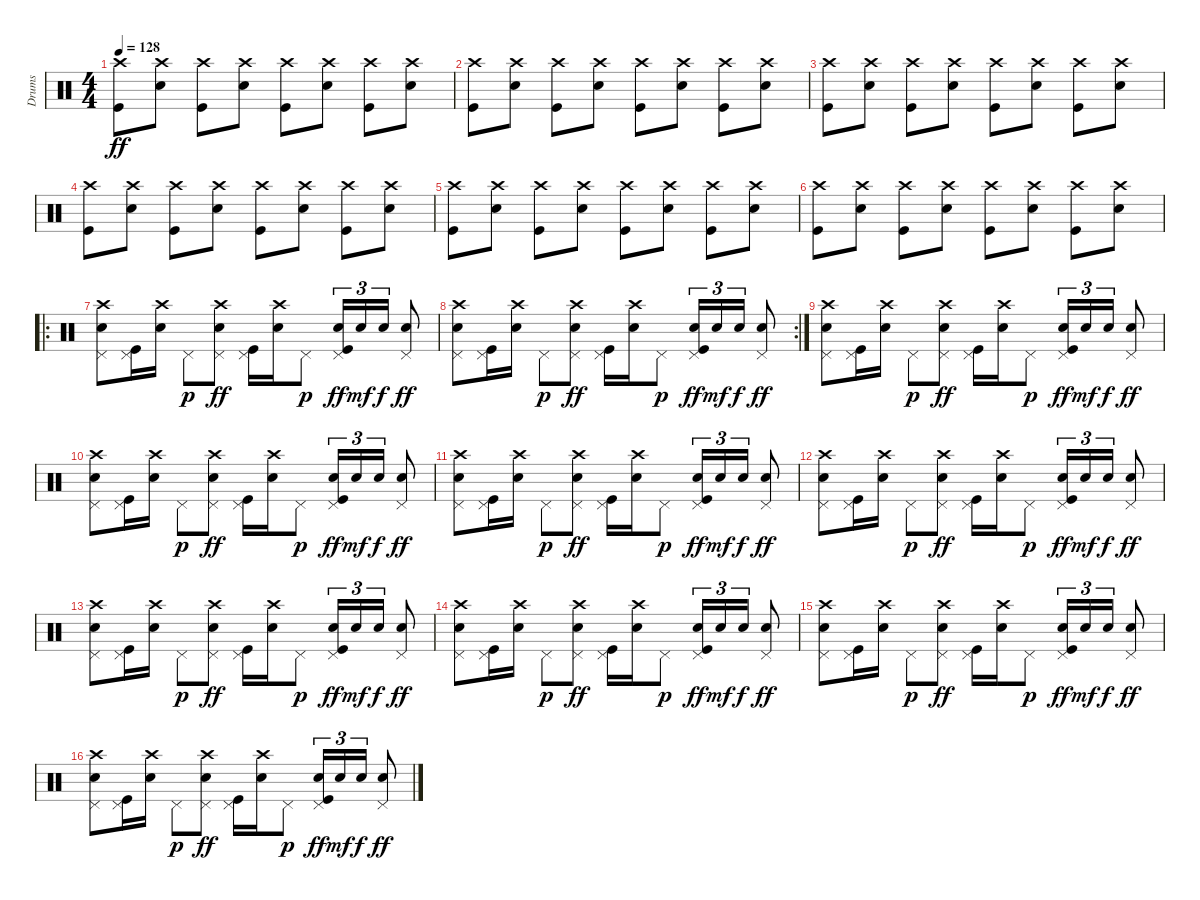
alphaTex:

\track ("Drums" "Drums") {instrument percussion}
\staff {score}
\articulation defaults
\ts (4 4)
\tempo 128
\clef neutral
\ks c
("Crash high (hit)" "Kick (hit)").8{dy ff} ("Crash high (hit)" "Snare (hit) 2").8 ("Crash high (hit)" "Kick (hit)").8 ("Crash high (hit)" "Snare (hit) 2").8 ("Crash high (hit)" "Kick (hit)").8 ("Crash high (hit)" "Snare (hit) 2").8 ("Crash high (hit)" "Kick (hit)").8 ("Crash high (hit)" "Snare (hit) 2").8 |
("Crash high (hit)" "Kick (hit)").8 ("Crash high (hit)" "Snare (hit) 2").8 ("Crash high (hit)" "Kick (hit)").8 ("Crash high (hit)" "Snare (hit) 2").8 ("Crash high (hit)" "Kick (hit)").8 ("Crash high (hit)" "Snare (hit) 2").8 ("Crash high (hit)" "Kick (hit)").8 ("Crash high (hit)" "Snare (hit) 2").8 |
("Crash high (hit)" "Kick (hit)").8 ("Crash high (hit)" "Snare (hit) 2").8 ("Crash high (hit)" "Kick (hit)").8 ("Crash high (hit)" "Snare (hit) 2").8 ("Crash high (hit)" "Kick (hit)").8 ("Crash high (hit)" "Snare (hit) 2").8 ("Crash high (hit)" "Kick (hit)").8 ("Crash high (hit)" "Snare (hit) 2").8 |
("Crash high (hit)" "Kick (hit)").8 ("Crash high (hit)" "Snare (hit) 2").8 ("Crash high (hit)" "Kick (hit)").8 ("Crash high (hit)" "Snare (hit) 2").8 ("Crash high (hit)" "Kick (hit)").8 ("Crash high (hit)" "Snare (hit) 2").8 ("Crash high (hit)" "Kick (hit)").8 ("Crash high (hit)" "Snare (hit) 2").8 |
("Crash high (hit)" "Kick (hit)").8 ("Crash high (hit)" "Snare (hit) 2").8 ("Crash high (hit)" "Kick (hit)").8 ("Crash high (hit)" "Snare (hit) 2").8 ("Crash high (hit)" "Kick (hit)").8 ("Crash high (hit)" "Snare (hit) 2").8 ("Crash high (hit)" "Kick (hit)").8 ("Crash high (hit)" "Snare (hit) 2").8 |
("Crash high (hit)" "Kick (hit)").8 ("Crash high (hit)" "Snare (hit) 2").8 ("Crash high (hit)" "Kick (hit)").8 ("Crash high (hit)" "Snare (hit) 2").8 ("Crash high (hit)" "Kick (hit)").8 ("Crash high (hit)" "Snare (hit) 2").8 ("Crash high (hit)" "Kick (hit)").8 ("Crash high (hit)" "Snare (hit) 2").8 |
\ro
("Crash high (hit)" "Pedal Hi-Hat (hit)" "Snare (hit) 2").8 ("Pedal Hi-Hat (hit)" "Kick (hit)").16 ("Crash high (hit)" "Snare (hit) 2").16 "Pedal Hi-Hat (hit)".8{dy p} ("Crash high (hit)" "Pedal Hi-Hat (hit)" "Snare (hit) 2").8{dy ff} ("Pedal Hi-Hat (hit)" "Kick (hit)").16 ("Crash high (hit)" "Snare (hit) 2").16 "Pedal Hi-Hat (hit)".8{dy p} ("Pedal Hi-Hat (hit)" "Snare (hit) 2" "Kick (hit)").16{tu (3 2) dy ff} "Snare (hit) 2".16{tu (3 2) dy mf} "Snare (hit) 2".16{tu (3 2) dy f} ("Pedal Hi-Hat (hit)" "Snare (hit) 2").8{dy ff} |
\rc 2
("Crash high (hit)" "Pedal Hi-Hat (hit)" "Snare (hit) 2").8 ("Pedal Hi-Hat (hit)" "Kick (hit)").16 ("Crash high (hit)" "Snare (hit) 2").16 "Pedal Hi-Hat (hit)".8{dy p} ("Crash high (hit)" "Pedal Hi-Hat (hit)" "Snare (hit) 2").8{dy ff} ("Pedal Hi-Hat (hit)" "Kick (hit)").16 ("Crash high (hit)" "Snare (hit) 2").16 "Pedal Hi-Hat (hit)".8{dy p} ("Pedal Hi-Hat (hit)" "Snare (hit) 2" "Kick (hit)").16{tu (3 2) dy ff} "Snare (hit) 2".16{tu (3 2) dy mf} "Snare (hit) 2".16{tu (3 2) dy f} ("Pedal Hi-Hat (hit)" "Snare (hit) 2").8{dy ff} |
("Crash high (hit)" "Pedal Hi-Hat (hit)" "Snare (hit) 2").8 ("Pedal Hi-Hat (hit)" "Kick (hit)").16 ("Crash high (hit)" "Snare (hit) 2").16 "Pedal Hi-Hat (hit)".8{dy p} ("Crash high (hit)" "Pedal Hi-Hat (hit)" "Snare (hit) 2").8{dy ff} ("Pedal Hi-Hat (hit)" "Kick (hit)").16 ("Crash high (hit)" "Snare (hit) 2").16 "Pedal Hi-Hat (hit)".8{dy p} ("Pedal Hi-Hat (hit)" "Snare (hit) 2" "Kick (hit)").16{tu (3 2) dy ff} "Snare (hit) 2".16{tu (3 2) dy mf} "Snare (hit) 2".16{tu (3 2) dy f} ("Pedal Hi-Hat (hit)" "Snare (hit) 2").8{dy ff} |
("Crash high (hit)" "Pedal Hi-Hat (hit)" "Snare (hit) 2").8 ("Pedal Hi-Hat (hit)" "Kick (hit)").16 ("Crash high (hit)" "Snare (hit) 2").16 "Pedal Hi-Hat (hit)".8{dy p} ("Crash high (hit)" "Pedal Hi-Hat (hit)" "Snare (hit) 2").8{dy ff} ("Pedal Hi-Hat (hit)" "Kick (hit)").16 ("Crash high (hit)" "Snare (hit) 2").16 "Pedal Hi-Hat (hit)".8{dy p} ("Pedal Hi-Hat (hit)" "Snare (hit) 2" "Kick (hit)").16{tu (3 2) dy ff} "Snare (hit) 2".16{tu (3 2) dy mf} "Snare (hit) 2".16{tu (3 2) dy f} ("Pedal Hi-Hat (hit)" "Snare (hit) 2").8{dy ff} |
("Crash high (hit)" "Pedal Hi-Hat (hit)" "Snare (hit) 2").8 ("Pedal Hi-Hat (hit)" "Kick (hit)").16 ("Crash high (hit)" "Snare (hit) 2").16 "Pedal Hi-Hat (hit)".8{dy p} ("Crash high (hit)" "Pedal Hi-Hat (hit)" "Snare (hit) 2").8{dy ff} ("Pedal Hi-Hat (hit)" "Kick (hit)").16 ("Crash high (hit)" "Snare (hit) 2").16 "Pedal Hi-Hat (hit)".8{dy p} ("Pedal Hi-Hat (hit)" "Snare (hit) 2" "Kick (hit)").16{tu (3 2) dy ff} "Snare (hit) 2".16{tu (3 2) dy mf} "Snare (hit) 2".16{tu (3 2) dy f} ("Pedal Hi-Hat (hit)" "Snare (hit) 2").8{dy ff} |
("Crash high (hit)" "Pedal Hi-Hat (hit)" "Snare (hit) 2").8 ("Pedal Hi-Hat (hit)" "Kick (hit)").16 ("Crash high (hit)" "Snare (hit) 2").16 "Pedal Hi-Hat (hit)".8{dy p} ("Crash high (hit)" "Pedal Hi-Hat (hit)" "Snare (hit) 2").8{dy ff} ("Pedal Hi-Hat (hit)" "Kick (hit)").16 ("Crash high (hit)" "Snare (hit) 2").16 "Pedal Hi-Hat (hit)".8{dy p} ("Pedal Hi-Hat (hit)" "Snare (hit) 2" "Kick (hit)").16{tu (3 2) dy ff} "Snare (hit) 2".16{tu (3 2) dy mf} "Snare (hit) 2".16{tu (3 2) dy f} ("Pedal Hi-Hat (hit)" "Snare (hit) 2").8{dy ff} |
("Crash high (hit)" "Pedal Hi-Hat (hit)" "Snare (hit) 2").8 ("Pedal Hi-Hat (hit)" "Kick (hit)").16 ("Crash high (hit)" "Snare (hit) 2").16 "Pedal Hi-Hat (hit)".8{dy p} ("Crash high (hit)" "Pedal Hi-Hat (hit)" "Snare (hit) 2").8{dy ff} ("Pedal Hi-Hat (hit)" "Kick (hit)").16 ("Crash high (hit)" "Snare (hit) 2").16 "Pedal Hi-Hat (hit)".8{dy p} ("Pedal Hi-Hat (hit)" "Snare (hit) 2" "Kick (hit)").16{tu (3 2) dy ff} "Snare (hit) 2".16{tu (3 2) dy mf} "Snare (hit) 2".16{tu (3 2) dy f} ("Pedal Hi-Hat (hit)" "Snare (hit) 2").8{dy ff} |
("Crash high (hit)" "Pedal Hi-Hat (hit)" "Snare (hit) 2").8 ("Pedal Hi-Hat (hit)" "Kick (hit)").16 ("Crash high (hit)" "Snare (hit) 2").16 "Pedal Hi-Hat (hit)".8{dy p} ("Crash high (hit)" "Pedal Hi-Hat (hit)" "Snare (hit) 2").8{dy ff} ("Pedal Hi-Hat (hit)" "Kick (hit)").16 ("Crash high (hit)" "Snare (hit) 2").16 "Pedal Hi-Hat (hit)".8{dy p} ("Pedal Hi-Hat (hit)" "Snare (hit) 2" "Kick (hit)").16{tu (3 2) dy ff} "Snare (hit) 2".16{tu (3 2) dy mf} "Snare (hit) 2".16{tu (3 2) dy f} ("Pedal Hi-Hat (hit)" "Snare (hit) 2").8{dy ff} |
("Crash high (hit)" "Pedal Hi-Hat (hit)" "Snare (hit) 2").8 ("Pedal Hi-Hat (hit)" "Kick (hit)").16 ("Crash high (hit)" "Snare (hit) 2").16 "Pedal Hi-Hat (hit)".8{dy p} ("Crash high (hit)" "Pedal Hi-Hat (hit)" "Snare (hit) 2").8{dy ff} ("Pedal Hi-Hat (hit)" "Kick (hit)").16 ("Crash high (hit)" "Snare (hit) 2").16 "Pedal Hi-Hat (hit)".8{dy p} ("Pedal Hi-Hat (hit)" "Snare (hit) 2" "Kick (hit)").16{tu (3 2) dy ff} "Snare (hit) 2".16{tu (3 2) dy mf} "Snare (hit) 2".16{tu (3 2) dy f} ("Pedal Hi-Hat (hit)" "Snare (hit) 2").8{dy ff} |
("Crash high (hit)" "Pedal Hi-Hat (hit)" "Snare (hit) 2").8 ("Pedal Hi-Hat (hit)" "Kick (hit)").16 ("Crash high (hit)" "Snare (hit) 2").16 "Pedal Hi-Hat (hit)".8{dy p} ("Crash high (hit)" "Pedal Hi-Hat (hit)" "Snare (hit) 2").8{dy ff} ("Pedal Hi-Hat (hit)" "Kick (hit)").16 ("Crash high (hit)" "Snare (hit) 2").16 "Pedal Hi-Hat (hit)".8{dy p} ("Pedal Hi-Hat (hit)" "Snare (hit) 2" "Kick (hit)").16{tu (3 2) dy ff} "Snare (hit) 2".16{tu (3 2) dy mf} "Snare (hit) 2".16{tu (3 2) dy f} ("Pedal Hi-Hat (hit)" "Snare (hit) 2").8{dy ff}
